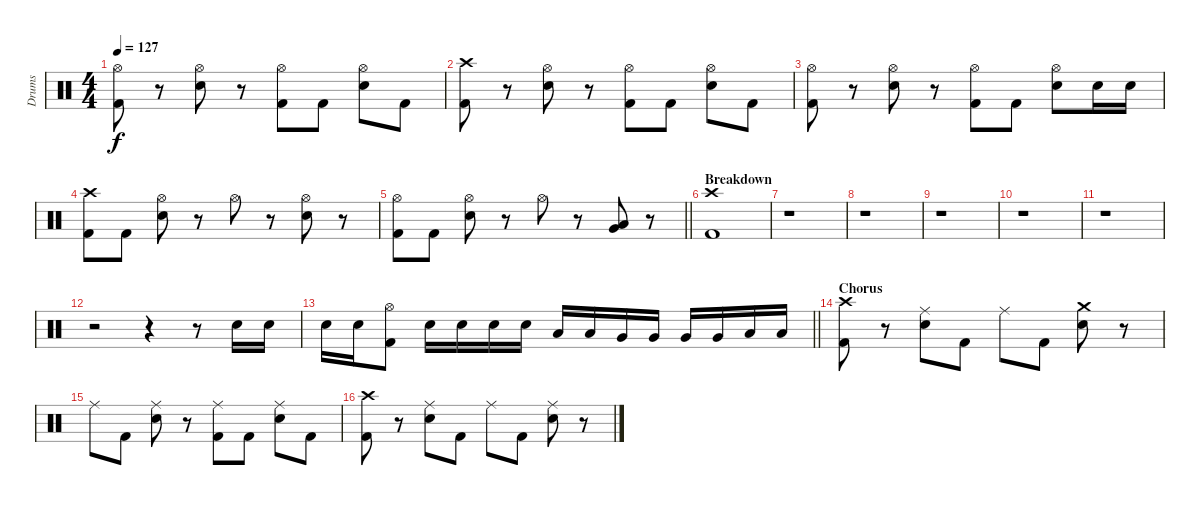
\track ("Drums" "Drums") {instrument percussion}
\staff {score}
\articulation defaults
\ts (4 4)
\tempo 127
\clef neutral
\ks c
("Hi-Hat (open)" "Kick (hit) 2").8{dy f} r.8 ("Hi-Hat (open)" "Electric Snare (hit)").8 r.8 ("Hi-Hat (open)" "Kick (hit) 2").8 "Kick (hit) 2".8 ("Hi-Hat (open)" "Electric Snare (hit)").8 "Kick (hit) 2".8 |
("Crash high (hit)" "Kick (hit) 2").8 r.8 ("Hi-Hat (open)" "Electric Snare (hit)").8 r.8 ("Hi-Hat (open)" "Kick (hit) 2").8 "Kick (hit) 2".8 ("Hi-Hat (open)" "Electric Snare (hit)").8 "Kick (hit) 2".8 |
("Hi-Hat (open)" "Kick (hit) 2").8 r.8 ("Hi-Hat (open)" "Electric Snare (hit)").8 r.8 ("Hi-Hat (open)" "Kick (hit) 2").8 "Kick (hit) 2".8 ("Hi-Hat (open)" "Electric Snare (hit)").8 "Electric Snare (hit)".16 "Electric Snare (hit)".16 |
("Crash high (hit)" "Kick (hit) 2").8 "Kick (hit) 2".8 ("Hi-Hat (open)" "Electric Snare (hit)").8 r.8 "Hi-Hat (open)".8 r.8 ("Hi-Hat (open)" "Electric Snare (hit)").8 r.8 |
\barLineRight lightlight
("Hi-Hat (open)" "Kick (hit) 2").8 "Kick (hit) 2".8 ("Hi-Hat (open)" "Electric Snare (hit)").8 r.8 "Hi-Hat (open)".8 r.8 ("Low Floor Tom (hit)" "Very Low Tom (hit)").8 r.8 |
\section ("" "Breakdown")
("Crash high (hit)" "Kick (hit) 2").1 |
r.1 |
r.1 |
r.1 |
r.1 |
r.1 |
r.2 r.4 r.8 "Electric Snare (hit)".16 "Electric Snare (hit)".16 |
\barLineRight lightlight "Electric Snare (hit)".16 "Electric Snare (hit)".16
("Hi-Hat (open)" "Kick (hit) 2").8 "Electric Snare (hit)".16 "Electric Snare (hit)".16 "Electric Snare (hit)".16 "Electric Snare (hit)".16 "Low Tom (hit)".16 "Low Tom (hit)".16 "Very Low Tom (hit)".16 "Very Low Tom (hit)".16 "Very Low Tom (hit)".16 "Very Low Tom (hit)".16 "Low Floor Tom (hit)".16 "Low Floor Tom (hit)".16 |
\section ("" "Chorus")
("Crash high (hit)" "Kick (hit) 2").8 r.8 ("Ride (middle)" "Electric Snare (hit)").8 "Kick (hit) 2".8 "Ride (middle)".8 "Kick (hit) 2".8 ("Crash medium (hit)" "Electric Snare (hit)").8 r.8 |
"Ride (middle)".8 "Kick (hit) 2".8 ("Ride (middle)" "Electric Snare (hit)").8 r.8 ("Ride (middle)" "Kick (hit) 2").8 "Kick (hit) 2".8 ("Ride (middle)" "Electric Snare (hit)").8 "Kick (hit) 2".8 |
("Crash high (hit)" "Kick (hit) 2").8 r.8 ("Ride (middle)" "Electric Snare (hit)").8 "Kick (hit) 2".8 "Ride (middle)".8 "Kick (hit) 2".8 ("Ride (middle)" "Electric Snare (hit)").8 r.8
